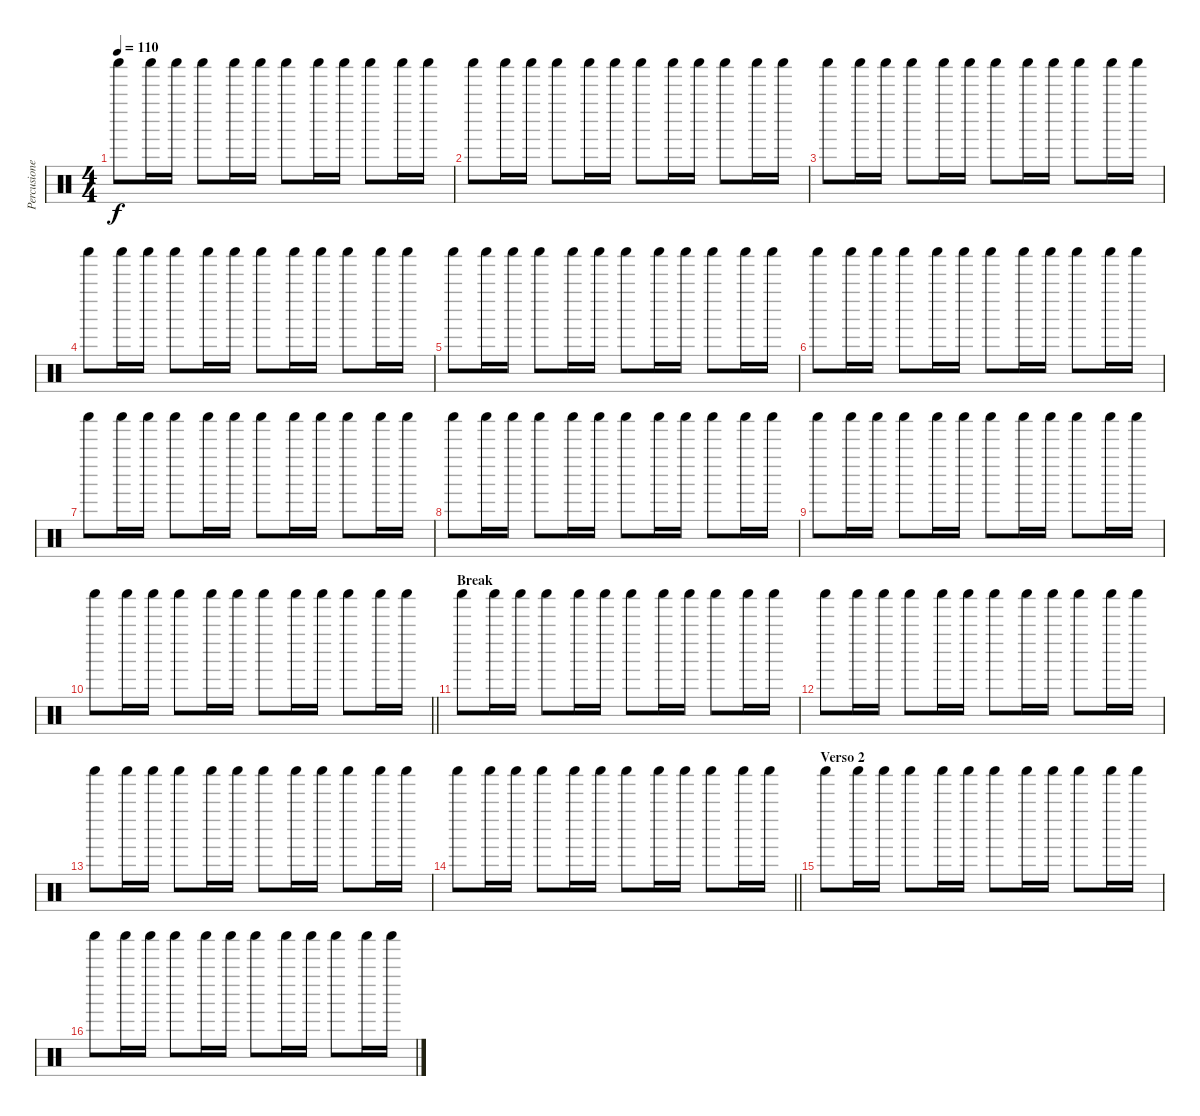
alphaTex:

\track ("Percusiones" "Percusione") {instrument percussion}
\staff {score}
\articulation defaults
\ts (4 4)
\tempo 110
\clef neutral
\ks c "Shaker (hit)".8{dy f} "Shaker (hit)".16 "Shaker (hit)".16 "Shaker (hit)".8 "Shaker (hit)".16 "Shaker (hit)".16 "Shaker (hit)".8 "Shaker (hit)".16 "Shaker (hit)".16 "Shaker (hit)".8 "Shaker (hit)".16 "Shaker (hit)".16
|
"Shaker (hit)".8 "Shaker (hit)".16 "Shaker (hit)".16 "Shaker (hit)".8 "Shaker (hit)".16 "Shaker (hit)".16 "Shaker (hit)".8 "Shaker (hit)".16 "Shaker (hit)".16 "Shaker (hit)".8 "Shaker (hit)".16 "Shaker (hit)".16 |
"Shaker (hit)".8 "Shaker (hit)".16 "Shaker (hit)".16 "Shaker (hit)".8 "Shaker (hit)".16 "Shaker (hit)".16 "Shaker (hit)".8 "Shaker (hit)".16 "Shaker (hit)".16 "Shaker (hit)".8 "Shaker (hit)".16 "Shaker (hit)".16 |
"Shaker (hit)".8 "Shaker (hit)".16 "Shaker (hit)".16 "Shaker (hit)".8 "Shaker (hit)".16 "Shaker (hit)".16 "Shaker (hit)".8 "Shaker (hit)".16 "Shaker (hit)".16 "Shaker (hit)".8 "Shaker (hit)".16 "Shaker (hit)".16 |
"Shaker (hit)".8 "Shaker (hit)".16 "Shaker (hit)".16 "Shaker (hit)".8 "Shaker (hit)".16 "Shaker (hit)".16 "Shaker (hit)".8 "Shaker (hit)".16 "Shaker (hit)".16 "Shaker (hit)".8 "Shaker (hit)".16 "Shaker (hit)".16 |
"Shaker (hit)".8 "Shaker (hit)".16 "Shaker (hit)".16 "Shaker (hit)".8 "Shaker (hit)".16 "Shaker (hit)".16 "Shaker (hit)".8 "Shaker (hit)".16 "Shaker (hit)".16 "Shaker (hit)".8 "Shaker (hit)".16 "Shaker (hit)".16 |
"Shaker (hit)".8 "Shaker (hit)".16 "Shaker (hit)".16 "Shaker (hit)".8 "Shaker (hit)".16 "Shaker (hit)".16 "Shaker (hit)".8 "Shaker (hit)".16 "Shaker (hit)".16 "Shaker (hit)".8 "Shaker (hit)".16 "Shaker (hit)".16 |
"Shaker (hit)".8 "Shaker (hit)".16 "Shaker (hit)".16 "Shaker (hit)".8 "Shaker (hit)".16 "Shaker (hit)".16 "Shaker (hit)".8 "Shaker (hit)".16 "Shaker (hit)".16 "Shaker (hit)".8 "Shaker (hit)".16 "Shaker (hit)".16 |
"Shaker (hit)".8 "Shaker (hit)".16 "Shaker (hit)".16 "Shaker (hit)".8 "Shaker (hit)".16 "Shaker (hit)".16 "Shaker (hit)".8 "Shaker (hit)".16 "Shaker (hit)".16 "Shaker (hit)".8 "Shaker (hit)".16 "Shaker (hit)".16 |
\barLineRight lightlight "Shaker (hit)".8 "Shaker (hit)".16 "Shaker (hit)".16 "Shaker (hit)".8 "Shaker (hit)".16 "Shaker (hit)".16 "Shaker (hit)".8 "Shaker (hit)".16 "Shaker (hit)".16 "Shaker (hit)".8 "Shaker (hit)".16 "Shaker (hit)".16
|
\section ("" "Break")
"Shaker (hit)".8 "Shaker (hit)".16 "Shaker (hit)".16 "Shaker (hit)".8 "Shaker (hit)".16 "Shaker (hit)".16 "Shaker (hit)".8 "Shaker (hit)".16 "Shaker (hit)".16 "Shaker (hit)".8 "Shaker (hit)".16 "Shaker (hit)".16 |
"Shaker (hit)".8 "Shaker (hit)".16 "Shaker (hit)".16 "Shaker (hit)".8 "Shaker (hit)".16 "Shaker (hit)".16 "Shaker (hit)".8 "Shaker (hit)".16 "Shaker (hit)".16 "Shaker (hit)".8 "Shaker (hit)".16 "Shaker (hit)".16 |
"Shaker (hit)".8 "Shaker (hit)".16 "Shaker (hit)".16 "Shaker (hit)".8 "Shaker (hit)".16 "Shaker (hit)".16 "Shaker (hit)".8 "Shaker (hit)".16 "Shaker (hit)".16 "Shaker (hit)".8 "Shaker (hit)".16 "Shaker (hit)".16 |
\barLineRight lightlight "Shaker (hit)".8 "Shaker (hit)".16 "Shaker (hit)".16 "Shaker (hit)".8 "Shaker (hit)".16 "Shaker (hit)".16 "Shaker (hit)".8 "Shaker (hit)".16 "Shaker (hit)".16 "Shaker (hit)".8 "Shaker (hit)".16 "Shaker (hit)".16
|
\section ("" "Verso 2")
"Shaker (hit)".8 "Shaker (hit)".16 "Shaker (hit)".16 "Shaker (hit)".8 "Shaker (hit)".16 "Shaker (hit)".16 "Shaker (hit)".8 "Shaker (hit)".16 "Shaker (hit)".16 "Shaker (hit)".8 "Shaker (hit)".16 "Shaker (hit)".16 |
"Shaker (hit)".8 "Shaker (hit)".16 "Shaker (hit)".16 "Shaker (hit)".8 "Shaker (hit)".16 "Shaker (hit)".16 "Shaker (hit)".8 "Shaker (hit)".16 "Shaker (hit)".16 "Shaker (hit)".8 "Shaker (hit)".16 "Shaker (hit)".16
